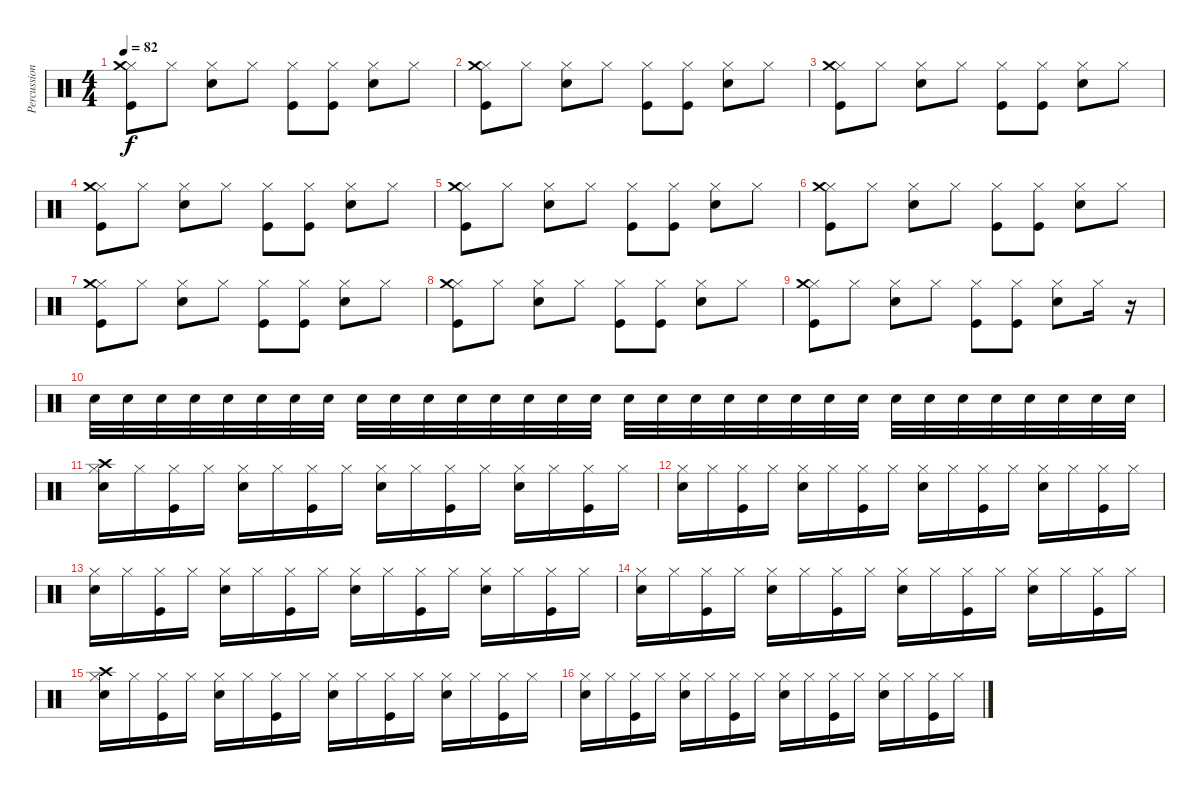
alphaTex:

\track ("Percussion" "Percussion") {instrument percussion}
\staff {score}
\articulation defaults
\ts (4 4)
\tempo 82
\clef neutral
\ks c
("Hi-Hat (closed)" "Crash medium (hit)" "Kick (hit)").8{dy f} "Hi-Hat (closed)".8 ("Hi-Hat (closed)" "Snare (hit) 2").8 "Hi-Hat (closed)".8 ("Hi-Hat (closed)" "Kick (hit)").8 ("Hi-Hat (closed)" "Kick (hit)").8 ("Hi-Hat (closed)" "Snare (hit) 2").8 "Hi-Hat (closed)".8 |
("Hi-Hat (closed)" "Crash medium (hit)" "Kick (hit)").8 "Hi-Hat (closed)".8 ("Hi-Hat (closed)" "Snare (hit) 2").8 "Hi-Hat (closed)".8 ("Hi-Hat (closed)" "Kick (hit)").8 ("Hi-Hat (closed)" "Kick (hit)").8 ("Hi-Hat (closed)" "Snare (hit) 2").8 "Hi-Hat (closed)".8 |
("Hi-Hat (closed)" "Crash medium (hit)" "Kick (hit)").8 "Hi-Hat (closed)".8 ("Hi-Hat (closed)" "Snare (hit) 2").8 "Hi-Hat (closed)".8 ("Hi-Hat (closed)" "Kick (hit)").8 ("Hi-Hat (closed)" "Kick (hit)").8 ("Hi-Hat (closed)" "Snare (hit) 2").8 "Hi-Hat (closed)".8 |
("Hi-Hat (closed)" "Crash medium (hit)" "Kick (hit)").8 "Hi-Hat (closed)".8 ("Hi-Hat (closed)" "Snare (hit) 2").8 "Hi-Hat (closed)".8 ("Hi-Hat (closed)" "Kick (hit)").8 ("Hi-Hat (closed)" "Kick (hit)").8 ("Hi-Hat (closed)" "Snare (hit) 2").8 "Hi-Hat (closed)".8 |
("Hi-Hat (closed)" "Crash medium (hit)" "Kick (hit)").8 "Hi-Hat (closed)".8 ("Hi-Hat (closed)" "Snare (hit) 2").8 "Hi-Hat (closed)".8 ("Hi-Hat (closed)" "Kick (hit)").8 ("Hi-Hat (closed)" "Kick (hit)").8 ("Hi-Hat (closed)" "Snare (hit) 2").8 "Hi-Hat (closed)".8 |
("Hi-Hat (closed)" "Crash medium (hit)" "Kick (hit)").8 "Hi-Hat (closed)".8 ("Hi-Hat (closed)" "Snare (hit) 2").8 "Hi-Hat (closed)".8 ("Hi-Hat (closed)" "Kick (hit)").8 ("Hi-Hat (closed)" "Kick (hit)").8 ("Hi-Hat (closed)" "Snare (hit) 2").8 "Hi-Hat (closed)".8 |
("Hi-Hat (closed)" "Crash medium (hit)" "Kick (hit)").8 "Hi-Hat (closed)".8 ("Hi-Hat (closed)" "Snare (hit) 2").8 "Hi-Hat (closed)".8 ("Hi-Hat (closed)" "Kick (hit)").8 ("Hi-Hat (closed)" "Kick (hit)").8 ("Hi-Hat (closed)" "Snare (hit) 2").8 "Hi-Hat (closed)".8 |
("Hi-Hat (closed)" "Crash medium (hit)" "Kick (hit)").8 "Hi-Hat (closed)".8 ("Hi-Hat (closed)" "Snare (hit) 2").8 "Hi-Hat (closed)".8 ("Hi-Hat (closed)" "Kick (hit)").8 ("Hi-Hat (closed)" "Kick (hit)").8 ("Hi-Hat (closed)" "Snare (hit) 2").8 "Hi-Hat (closed)".8 |
("Hi-Hat (closed)" "Crash medium (hit)" "Kick (hit)").8 "Hi-Hat (closed)".8 ("Hi-Hat (closed)" "Snare (hit) 2").8 "Hi-Hat (closed)".8 ("Hi-Hat (closed)" "Kick (hit)").8 ("Hi-Hat (closed)" "Kick (hit)").8 ("Hi-Hat (closed)" "Snare (hit) 2").8 "Hi-Hat (closed)".16 r.16{volume 4} |
"Snare (hit) 2".32{volume 13} "Snare (hit) 2".32 "Snare (hit) 2".32 "Snare (hit) 2".32 "Snare (hit) 2".32 "Snare (hit) 2".32 "Snare (hit) 2".32 "Snare (hit) 2".32 "Snare (hit) 2".32 "Snare (hit) 2".32 "Snare (hit) 2".32 "Snare (hit) 2".32 "Snare (hit) 2".32 "Snare (hit) 2".32 "Snare (hit) 2".32 "Snare (hit) 2".32 "Snare (hit) 2".32 "Snare (hit) 2".32 "Snare (hit) 2".32 "Snare (hit) 2".32 "Snare (hit) 2".32 "Snare (hit) 2".32 "Snare (hit) 2".32 "Snare (hit) 2".32 "Snare (hit) 2".32 "Snare (hit) 2".32 "Snare (hit) 2".32 "Snare (hit) 2".32 "Snare (hit) 2".32 "Snare (hit) 2".32 "Snare (hit) 2".32 "Snare (hit) 2".32 |
("Hi-Hat (closed)" "Crash high (hit)" "Electric Snare (hit)").16 "Hi-Hat (closed)".16 ("Hi-Hat (closed)" "Kick (hit)").16 "Hi-Hat (closed)".16 ("Hi-Hat (closed)" "Snare (hit) 2").16 "Hi-Hat (closed)".16 ("Hi-Hat (closed)" "Kick (hit)").16 "Hi-Hat (closed)".16 ("Hi-Hat (closed)" "Snare (hit) 2").16 "Hi-Hat (closed)".16 ("Hi-Hat (closed)" "Kick (hit)").16 "Hi-Hat (closed)".16 ("Hi-Hat (closed)" "Snare (hit) 2").16 "Hi-Hat (closed)".16 ("Hi-Hat (closed)" "Kick (hit)").16 "Hi-Hat (closed)".16 |
("Hi-Hat (closed)" "Snare (hit) 2").16 "Hi-Hat (closed)".16 ("Hi-Hat (closed)" "Kick (hit)").16 "Hi-Hat (closed)".16 ("Hi-Hat (closed)" "Snare (hit) 2").16 "Hi-Hat (closed)".16 ("Hi-Hat (closed)" "Kick (hit)").16 "Hi-Hat (closed)".16 ("Hi-Hat (closed)" "Snare (hit) 2").16 "Hi-Hat (closed)".16 ("Hi-Hat (closed)" "Kick (hit)").16 "Hi-Hat (closed)".16 ("Hi-Hat (closed)" "Snare (hit) 2").16 "Hi-Hat (closed)".16 ("Hi-Hat (closed)" "Kick (hit)").16 "Hi-Hat (closed)".16 |
("Hi-Hat (closed)" "Snare (hit) 2").16 "Hi-Hat (closed)".16 ("Hi-Hat (closed)" "Kick (hit)").16 "Hi-Hat (closed)".16 ("Hi-Hat (closed)" "Snare (hit) 2").16 "Hi-Hat (closed)".16 ("Hi-Hat (closed)" "Kick (hit)").16 "Hi-Hat (closed)".16 ("Hi-Hat (closed)" "Snare (hit) 2").16 "Hi-Hat (closed)".16 ("Hi-Hat (closed)" "Kick (hit)").16 "Hi-Hat (closed)".16 ("Hi-Hat (closed)" "Snare (hit) 2").16 "Hi-Hat (closed)".16 ("Hi-Hat (closed)" "Kick (hit)").16 "Hi-Hat (closed)".16 |
("Hi-Hat (closed)" "Snare (hit) 2").16 "Hi-Hat (closed)".16 ("Hi-Hat (closed)" "Kick (hit)").16 "Hi-Hat (closed)".16 ("Hi-Hat (closed)" "Snare (hit) 2").16 "Hi-Hat (closed)".16 ("Hi-Hat (closed)" "Kick (hit)").16 "Hi-Hat (closed)".16 ("Hi-Hat (closed)" "Snare (hit) 2").16 "Hi-Hat (closed)".16 ("Hi-Hat (closed)" "Kick (hit)").16 "Hi-Hat (closed)".16 ("Hi-Hat (closed)" "Snare (hit) 2").16 "Hi-Hat (closed)".16 ("Hi-Hat (closed)" "Kick (hit)").16 "Hi-Hat (closed)".16 |
("Hi-Hat (closed)" "Crash high (hit)" "Electric Snare (hit)").16 "Hi-Hat (closed)".16 ("Hi-Hat (closed)" "Kick (hit)").16 "Hi-Hat (closed)".16 ("Hi-Hat (closed)" "Snare (hit) 2").16 "Hi-Hat (closed)".16 ("Hi-Hat (closed)" "Kick (hit)").16 "Hi-Hat (closed)".16 ("Hi-Hat (closed)" "Snare (hit) 2").16 "Hi-Hat (closed)".16 ("Hi-Hat (closed)" "Kick (hit)").16 "Hi-Hat (closed)".16 ("Hi-Hat (closed)" "Snare (hit) 2").16 "Hi-Hat (closed)".16 ("Hi-Hat (closed)" "Kick (hit)").16 "Hi-Hat (closed)".16 |
("Hi-Hat (closed)" "Snare (hit) 2").16 "Hi-Hat (closed)".16 ("Hi-Hat (closed)" "Kick (hit)").16 "Hi-Hat (closed)".16 ("Hi-Hat (closed)" "Snare (hit) 2").16 "Hi-Hat (closed)".16 ("Hi-Hat (closed)" "Kick (hit)").16 "Hi-Hat (closed)".16 ("Hi-Hat (closed)" "Snare (hit) 2").16 "Hi-Hat (closed)".16 ("Hi-Hat (closed)" "Kick (hit)").16 "Hi-Hat (closed)".16 ("Hi-Hat (closed)" "Snare (hit) 2").16 "Hi-Hat (closed)".16 ("Hi-Hat (closed)" "Kick (hit)").16 "Hi-Hat (closed)".16
